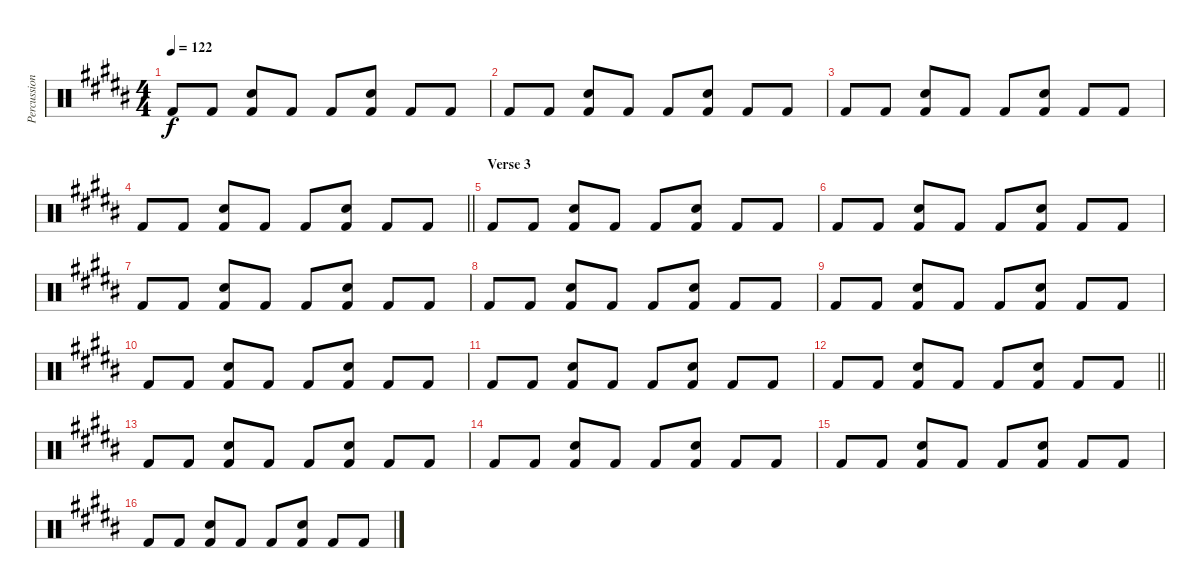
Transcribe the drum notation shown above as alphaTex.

\track ("Percussion" "Percussion") {instrument percussion}
\staff {score}
\articulation defaults
\ts (4 4)
\tempo 122
\clef neutral
\ks b "Kick (hit) 2".8{dy f} "Kick (hit) 2".8
("Kick (hit) 2" "Snare (hit) 2").8 "Kick (hit) 2".8 "Kick (hit) 2".8 ("Kick (hit) 2" "Snare (hit) 2").8 "Kick (hit) 2".8 "Kick (hit) 2".8 |
"Kick (hit) 2".8 "Kick (hit) 2".8 ("Kick (hit) 2" "Snare (hit) 2").8 "Kick (hit) 2".8 "Kick (hit) 2".8 ("Kick (hit) 2" "Snare (hit) 2").8 "Kick (hit) 2".8 "Kick (hit) 2".8 |
"Kick (hit) 2".8 "Kick (hit) 2".8 ("Kick (hit) 2" "Snare (hit) 2").8 "Kick (hit) 2".8 "Kick (hit) 2".8 ("Kick (hit) 2" "Snare (hit) 2").8 "Kick (hit) 2".8 "Kick (hit) 2".8 |
\barLineRight lightlight "Kick (hit) 2".8 "Kick (hit) 2".8
("Kick (hit) 2" "Snare (hit) 2").8 "Kick (hit) 2".8 "Kick (hit) 2".8 ("Kick (hit) 2" "Snare (hit) 2").8 "Kick (hit) 2".8 "Kick (hit) 2".8 |
\section ("" "Verse 3")
"Kick (hit) 2".8 "Kick (hit) 2".8 ("Kick (hit) 2" "Snare (hit) 2").8 "Kick (hit) 2".8 "Kick (hit) 2".8 ("Kick (hit) 2" "Snare (hit) 2").8 "Kick (hit) 2".8 "Kick (hit) 2".8 |
"Kick (hit) 2".8 "Kick (hit) 2".8 ("Kick (hit) 2" "Snare (hit) 2").8 "Kick (hit) 2".8 "Kick (hit) 2".8 ("Kick (hit) 2" "Snare (hit) 2").8 "Kick (hit) 2".8 "Kick (hit) 2".8 |
"Kick (hit) 2".8 "Kick (hit) 2".8 ("Kick (hit) 2" "Snare (hit) 2").8 "Kick (hit) 2".8 "Kick (hit) 2".8 ("Kick (hit) 2" "Snare (hit) 2").8 "Kick (hit) 2".8 "Kick (hit) 2".8 |
"Kick (hit) 2".8 "Kick (hit) 2".8 ("Kick (hit) 2" "Snare (hit) 2").8 "Kick (hit) 2".8 "Kick (hit) 2".8 ("Kick (hit) 2" "Snare (hit) 2").8 "Kick (hit) 2".8 "Kick (hit) 2".8 |
"Kick (hit) 2".8 "Kick (hit) 2".8 ("Kick (hit) 2" "Snare (hit) 2").8 "Kick (hit) 2".8 "Kick (hit) 2".8 ("Kick (hit) 2" "Snare (hit) 2").8 "Kick (hit) 2".8 "Kick (hit) 2".8 |
"Kick (hit) 2".8 "Kick (hit) 2".8 ("Kick (hit) 2" "Snare (hit) 2").8 "Kick (hit) 2".8 "Kick (hit) 2".8 ("Kick (hit) 2" "Snare (hit) 2").8 "Kick (hit) 2".8 "Kick (hit) 2".8 |
"Kick (hit) 2".8 "Kick (hit) 2".8 ("Kick (hit) 2" "Snare (hit) 2").8 "Kick (hit) 2".8 "Kick (hit) 2".8 ("Kick (hit) 2" "Snare (hit) 2").8 "Kick (hit) 2".8 "Kick (hit) 2".8 |
\barLineRight lightlight "Kick (hit) 2".8 "Kick (hit) 2".8
("Kick (hit) 2" "Snare (hit) 2").8 "Kick (hit) 2".8 "Kick (hit) 2".8 ("Kick (hit) 2" "Snare (hit) 2").8 "Kick (hit) 2".8 "Kick (hit) 2".8 |
"Kick (hit) 2".8 "Kick (hit) 2".8 ("Kick (hit) 2" "Snare (hit) 2").8 "Kick (hit) 2".8 "Kick (hit) 2".8 ("Kick (hit) 2" "Snare (hit) 2").8 "Kick (hit) 2".8 "Kick (hit) 2".8 |
"Kick (hit) 2".8 "Kick (hit) 2".8 ("Kick (hit) 2" "Snare (hit) 2").8 "Kick (hit) 2".8 "Kick (hit) 2".8 ("Kick (hit) 2" "Snare (hit) 2").8 "Kick (hit) 2".8 "Kick (hit) 2".8 |
"Kick (hit) 2".8 "Kick (hit) 2".8 ("Kick (hit) 2" "Snare (hit) 2").8 "Kick (hit) 2".8 "Kick (hit) 2".8 ("Kick (hit) 2" "Snare (hit) 2").8 "Kick (hit) 2".8 "Kick (hit) 2".8 |
"Kick (hit) 2".8 "Kick (hit) 2".8 ("Kick (hit) 2" "Snare (hit) 2").8 "Kick (hit) 2".8 "Kick (hit) 2".8 ("Kick (hit) 2" "Snare (hit) 2").8 "Kick (hit) 2".8 "Kick (hit) 2".8
